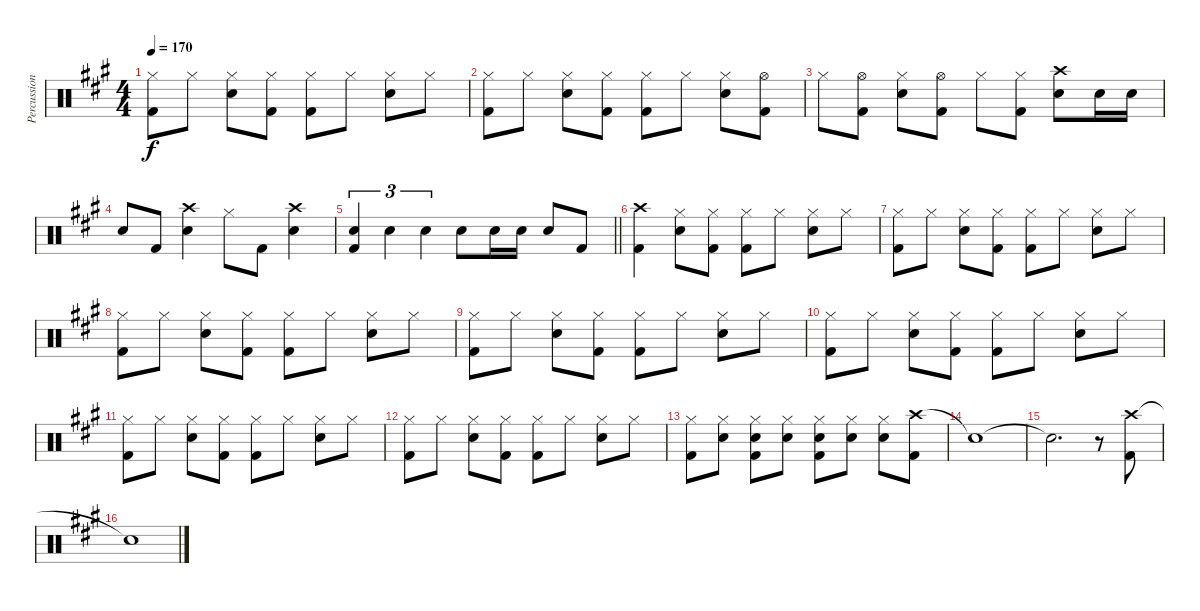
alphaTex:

\track ("Percussion" "Percussion") {instrument percussion}
\staff {score}
\articulation defaults
\ts (4 4)
\tempo 170
\clef neutral
\ks a
("Hi-Hat (closed)" "Kick (hit) 2").8{dy f} "Hi-Hat (closed)".8 ("Hi-Hat (closed)" "Snare (hit) 2").8 ("Hi-Hat (closed)" "Kick (hit) 2").8 ("Hi-Hat (closed)" "Kick (hit) 2").8 "Hi-Hat (closed)".8 ("Hi-Hat (closed)" "Snare (hit) 2").8 "Hi-Hat (closed)".8 |
("Hi-Hat (closed)" "Kick (hit) 2").8 "Hi-Hat (closed)".8 ("Hi-Hat (closed)" "Snare (hit) 2").8 ("Hi-Hat (closed)" "Kick (hit) 2").8 ("Hi-Hat (closed)" "Kick (hit) 2").8 "Hi-Hat (closed)".8 ("Hi-Hat (closed)" "Snare (hit) 2").8 ("Hi-Hat (open)" "Kick (hit) 2").8 |
"Hi-Hat (closed)".8 ("Hi-Hat (open)" "Kick (hit) 2").8 ("Hi-Hat (closed)" "Snare (hit) 2").8 ("Hi-Hat (open)" "Kick (hit) 2").8 "Hi-Hat (closed)".8 ("Hi-Hat (closed)" "Kick (hit) 2").8 ("Crash high (hit)" "Snare (hit) 2").8 "Snare (hit) 2".16 "Snare (hit) 2".16 |
"Snare (hit) 2".8 "Kick (hit) 2".8 ("Crash high (hit)" "Snare (hit) 2").4 "Hi-Hat (closed)".8 "Kick (hit) 2".8 ("Crash high (hit)" "Snare (hit) 2").4 |
\barLineRight lightlight
("Snare (hit) 2" "Kick (hit) 2").4{tu (3 2)} "Snare (hit) 2".4{tu (3 2)} "Snare (hit) 2".4{tu (3 2)} "Snare (hit) 2".8 "Snare (hit) 2".16 "Snare (hit) 2".16 "Snare (hit) 2".8 "Kick (hit) 2".8 |
("Crash high (hit)" "Kick (hit) 2").4 ("Hi-Hat (closed)" "Snare (hit) 2").8 ("Hi-Hat (closed)" "Kick (hit) 2").8 ("Hi-Hat (closed)" "Kick (hit) 2").8 "Hi-Hat (closed)".8 ("Hi-Hat (closed)" "Snare (hit) 2").8 "Hi-Hat (closed)".8 |
("Hi-Hat (closed)" "Kick (hit) 2").8 "Hi-Hat (closed)".8 ("Hi-Hat (closed)" "Snare (hit) 2").8 ("Hi-Hat (closed)" "Kick (hit) 2").8 ("Hi-Hat (closed)" "Kick (hit) 2").8 "Hi-Hat (closed)".8 ("Hi-Hat (closed)" "Snare (hit) 2").8 "Hi-Hat (closed)".8 |
("Hi-Hat (closed)" "Kick (hit) 2").8 "Hi-Hat (closed)".8 ("Hi-Hat (closed)" "Snare (hit) 2").8 ("Hi-Hat (closed)" "Kick (hit) 2").8 ("Hi-Hat (closed)" "Kick (hit) 2").8 "Hi-Hat (closed)".8 ("Hi-Hat (closed)" "Snare (hit) 2").8 "Hi-Hat (closed)".8 |
("Hi-Hat (closed)" "Kick (hit) 2").8 "Hi-Hat (closed)".8 ("Hi-Hat (closed)" "Snare (hit) 2").8 ("Hi-Hat (closed)" "Kick (hit) 2").8 ("Hi-Hat (closed)" "Kick (hit) 2").8 "Hi-Hat (closed)".8 ("Hi-Hat (closed)" "Snare (hit) 2").8 "Hi-Hat (closed)".8 |
("Hi-Hat (closed)" "Kick (hit) 2").8 "Hi-Hat (closed)".8 ("Hi-Hat (closed)" "Snare (hit) 2").8 ("Hi-Hat (closed)" "Kick (hit) 2").8 ("Hi-Hat (closed)" "Kick (hit) 2").8 "Hi-Hat (closed)".8 ("Hi-Hat (closed)" "Snare (hit) 2").8 "Hi-Hat (closed)".8 |
("Hi-Hat (closed)" "Kick (hit) 2").8 "Hi-Hat (closed)".8 ("Hi-Hat (closed)" "Snare (hit) 2").8 ("Hi-Hat (closed)" "Kick (hit) 2").8 ("Hi-Hat (closed)" "Kick (hit) 2").8 "Hi-Hat (closed)".8 ("Hi-Hat (closed)" "Snare (hit) 2").8 "Hi-Hat (closed)".8 |
("Hi-Hat (closed)" "Kick (hit) 2").8 "Hi-Hat (closed)".8 ("Hi-Hat (closed)" "Snare (hit) 2").8 ("Hi-Hat (closed)" "Kick (hit) 2").8 ("Hi-Hat (closed)" "Kick (hit) 2").8 "Hi-Hat (closed)".8 ("Hi-Hat (closed)" "Snare (hit) 2").8 "Hi-Hat (closed)".8 |
("Hi-Hat (closed)" "Kick (hit) 2").8 ("Hi-Hat (closed)" "Snare (hit) 2").8 ("Hi-Hat (closed)" "Snare (hit) 2" "Kick (hit) 2").8 ("Hi-Hat (closed)" "Snare (hit) 2").8 ("Hi-Hat (closed)" "Snare (hit) 2" "Kick (hit) 2").8 ("Hi-Hat (closed)" "Snare (hit) 2").8 ("Hi-Hat (closed)" "Snare (hit) 2").8 ("Crash high (hit)" "Kick (hit) 2").8 |
"Snare (hit)"{t}.1 |
"Snare (hit)"{t}.2{d} r.8 ("Crash high (hit)" "Kick (hit) 2").8 |
"Snare (hit)"{t}.1
